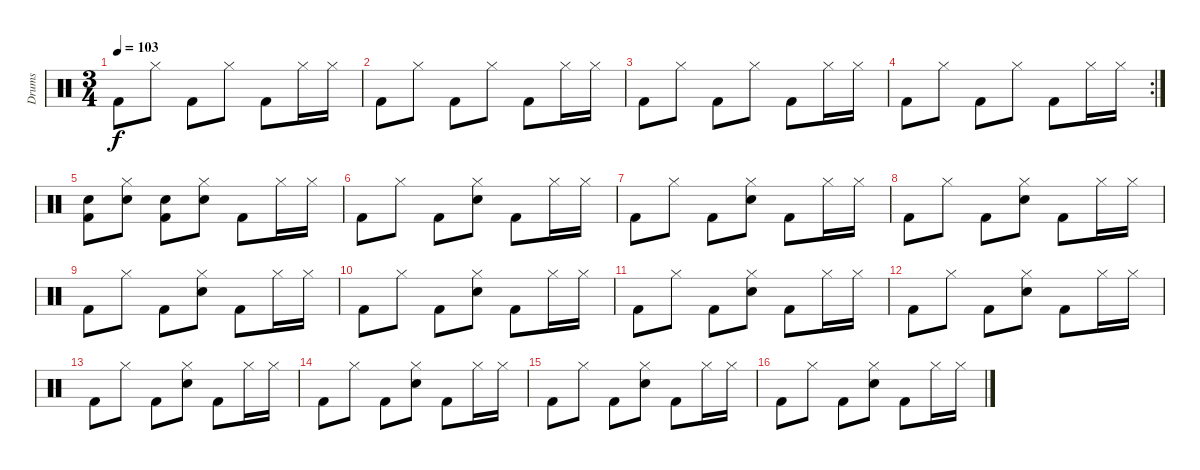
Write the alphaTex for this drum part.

\track ("Drums" "Drums") {instrument percussion}
\staff {score}
\articulation defaults
\ts (3 4)
\tempo 103
\clef neutral
\ks c "Kick (hit) 2".8{dy f} "Hi-Hat (closed)".8 "Kick (hit) 2".8 "Hi-Hat (closed)".8 "Kick (hit) 2".8 "Hi-Hat (closed)".16 "Hi-Hat (closed)".16
|
"Kick (hit) 2".8 "Hi-Hat (closed)".8 "Kick (hit) 2".8 "Hi-Hat (closed)".8 "Kick (hit) 2".8 "Hi-Hat (closed)".16 "Hi-Hat (closed)".16 |
"Kick (hit) 2".8 "Hi-Hat (closed)".8 "Kick (hit) 2".8 "Hi-Hat (closed)".8 "Kick (hit) 2".8 "Hi-Hat (closed)".16 "Hi-Hat (closed)".16 |
\rc 2 "Kick (hit) 2".8 "Hi-Hat (closed)".8 "Kick (hit) 2".8 "Hi-Hat (closed)".8 "Kick (hit) 2".8 "Hi-Hat (closed)".16 "Hi-Hat (closed)".16
|
("Snare (hit) 2" "Kick (hit) 2").8 ("Hi-Hat (closed)" "Snare (hit) 2").8 ("Snare (hit) 2" "Kick (hit) 2").8 ("Hi-Hat (closed)" "Snare (hit) 2").8 "Kick (hit) 2".8 "Hi-Hat (closed)".16 "Hi-Hat (closed)".16 |
"Kick (hit) 2".8 "Hi-Hat (closed)".8 "Kick (hit) 2".8 ("Hi-Hat (closed)" "Snare (hit) 2").8 "Kick (hit) 2".8 "Hi-Hat (closed)".16 "Hi-Hat (closed)".16 |
"Kick (hit) 2".8 "Hi-Hat (closed)".8 "Kick (hit) 2".8 ("Hi-Hat (closed)" "Snare (hit) 2").8 "Kick (hit) 2".8 "Hi-Hat (closed)".16 "Hi-Hat (closed)".16 |
"Kick (hit) 2".8 "Hi-Hat (closed)".8 "Kick (hit) 2".8 ("Hi-Hat (closed)" "Snare (hit) 2").8 "Kick (hit) 2".8 "Hi-Hat (closed)".16 "Hi-Hat (closed)".16 |
"Kick (hit) 2".8 "Hi-Hat (closed)".8 "Kick (hit) 2".8 ("Hi-Hat (closed)" "Snare (hit) 2").8 "Kick (hit) 2".8 "Hi-Hat (closed)".16 "Hi-Hat (closed)".16 |
"Kick (hit) 2".8 "Hi-Hat (closed)".8 "Kick (hit) 2".8 ("Hi-Hat (closed)" "Snare (hit) 2").8 "Kick (hit) 2".8 "Hi-Hat (closed)".16 "Hi-Hat (closed)".16 |
"Kick (hit) 2".8 "Hi-Hat (closed)".8 "Kick (hit) 2".8 ("Hi-Hat (closed)" "Snare (hit) 2").8 "Kick (hit) 2".8 "Hi-Hat (closed)".16 "Hi-Hat (closed)".16 |
"Kick (hit) 2".8 "Hi-Hat (closed)".8 "Kick (hit) 2".8 ("Hi-Hat (closed)" "Snare (hit) 2").8 "Kick (hit) 2".8 "Hi-Hat (closed)".16 "Hi-Hat (closed)".16 |
"Kick (hit) 2".8 "Hi-Hat (closed)".8 "Kick (hit) 2".8 ("Hi-Hat (closed)" "Snare (hit) 2").8 "Kick (hit) 2".8 "Hi-Hat (closed)".16 "Hi-Hat (closed)".16 |
"Kick (hit) 2".8 "Hi-Hat (closed)".8 "Kick (hit) 2".8 ("Hi-Hat (closed)" "Snare (hit) 2").8 "Kick (hit) 2".8 "Hi-Hat (closed)".16 "Hi-Hat (closed)".16 |
"Kick (hit) 2".8 "Hi-Hat (closed)".8 "Kick (hit) 2".8 ("Hi-Hat (closed)" "Snare (hit) 2").8 "Kick (hit) 2".8 "Hi-Hat (closed)".16 "Hi-Hat (closed)".16 |
"Kick (hit) 2".8 "Hi-Hat (closed)".8 "Kick (hit) 2".8 ("Hi-Hat (closed)" "Snare (hit) 2").8 "Kick (hit) 2".8 "Hi-Hat (closed)".16 "Hi-Hat (closed)".16
